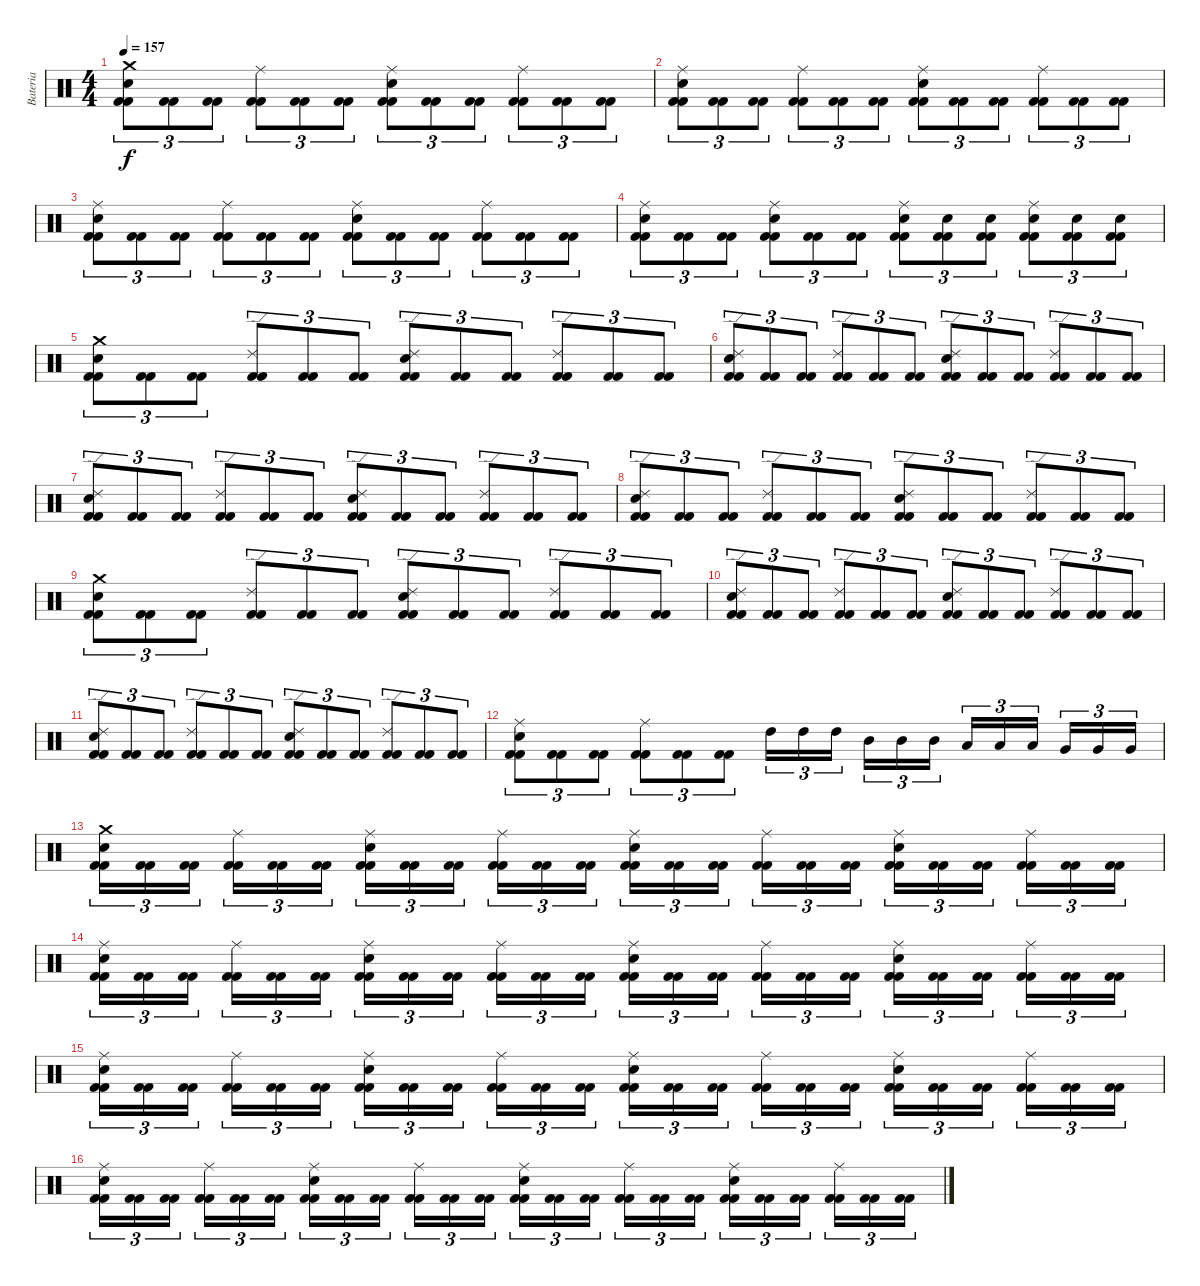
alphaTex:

\track ("Bateria" "Bateria") {instrument percussion}
\staff {score}
\articulation defaults
\ts (4 4)
\tempo 157
\clef neutral
\ks c
("Kick (hit) 2" "Kick (hit) 2" "Snare (hit) 2" "Crash medium (hit)").8{tu (3 2) dy f} ("Kick (hit) 2" "Kick (hit) 2").8{tu (3 2)} ("Kick (hit) 2" "Kick (hit) 2").8{tu (3 2)} ("Kick (hit) 2" "Kick (hit) 2" "Ride (middle)").8{tu (3 2)} ("Kick (hit) 2" "Kick (hit) 2").8{tu (3 2)} ("Kick (hit) 2" "Kick (hit) 2").8{tu (3 2)} ("Kick (hit) 2" "Kick (hit) 2" "Snare (hit) 2" "Ride (middle)").8{tu (3 2)} ("Kick (hit) 2" "Kick (hit) 2").8{tu (3 2)} ("Kick (hit) 2" "Kick (hit) 2").8{tu (3 2)} ("Kick (hit) 2" "Kick (hit) 2" "Ride (middle)").8{tu (3 2)} ("Kick (hit) 2" "Kick (hit) 2").8{tu (3 2)} ("Kick (hit) 2" "Kick (hit) 2").8{tu (3 2)} |
("Kick (hit) 2" "Kick (hit) 2" "Snare (hit) 2" "Ride (middle)").8{tu (3 2)} ("Kick (hit) 2" "Kick (hit) 2").8{tu (3 2)} ("Kick (hit) 2" "Kick (hit) 2").8{tu (3 2)} ("Kick (hit) 2" "Kick (hit) 2" "Ride (middle)").8{tu (3 2)} ("Kick (hit) 2" "Kick (hit) 2").8{tu (3 2)} ("Kick (hit) 2" "Kick (hit) 2").8{tu (3 2)} ("Kick (hit) 2" "Kick (hit) 2" "Snare (hit) 2" "Ride (middle)").8{tu (3 2)} ("Kick (hit) 2" "Kick (hit) 2").8{tu (3 2)} ("Kick (hit) 2" "Kick (hit) 2").8{tu (3 2)} ("Kick (hit) 2" "Kick (hit) 2" "Ride (middle)").8{tu (3 2)} ("Kick (hit) 2" "Kick (hit) 2").8{tu (3 2)} ("Kick (hit) 2" "Kick (hit) 2").8{tu (3 2)} |
("Kick (hit) 2" "Kick (hit) 2" "Snare (hit) 2" "Ride (middle)").8{tu (3 2)} ("Kick (hit) 2" "Kick (hit) 2").8{tu (3 2)} ("Kick (hit) 2" "Kick (hit) 2").8{tu (3 2)} ("Kick (hit) 2" "Kick (hit) 2" "Ride (middle)").8{tu (3 2)} ("Kick (hit) 2" "Kick (hit) 2").8{tu (3 2)} ("Kick (hit) 2" "Kick (hit) 2").8{tu (3 2)} ("Kick (hit) 2" "Kick (hit) 2" "Snare (hit) 2" "Ride (middle)").8{tu (3 2)} ("Kick (hit) 2" "Kick (hit) 2").8{tu (3 2)} ("Kick (hit) 2" "Kick (hit) 2").8{tu (3 2)} ("Kick (hit) 2" "Kick (hit) 2" "Ride (middle)").8{tu (3 2)} ("Kick (hit) 2" "Kick (hit) 2").8{tu (3 2)} ("Kick (hit) 2" "Kick (hit) 2").8{tu (3 2)} |
("Kick (hit) 2" "Kick (hit) 2" "Snare (hit) 2" "Ride (middle)").8{tu (3 2)} ("Kick (hit) 2" "Kick (hit) 2").8{tu (3 2)} ("Kick (hit) 2" "Kick (hit) 2").8{tu (3 2)} ("Kick (hit) 2" "Kick (hit) 2" "Snare (hit) 2" "Ride (middle)").8{tu (3 2)} ("Kick (hit) 2" "Kick (hit) 2").8{tu (3 2)} ("Kick (hit) 2" "Kick (hit) 2").8{tu (3 2)} ("Kick (hit) 2" "Kick (hit) 2" "Snare (hit) 2" "Ride (middle)").8{tu (3 2)} ("Kick (hit) 2" "Kick (hit) 2" "Snare (hit) 2").8{tu (3 2)} ("Kick (hit) 2" "Kick (hit) 2" "Snare (hit) 2").8{tu (3 2)} ("Kick (hit) 2" "Kick (hit) 2" "Snare (hit) 2" "Ride (middle)").8{tu (3 2)} ("Kick (hit) 2" "Kick (hit) 2" "Snare (hit) 2").8{tu (3 2)} ("Kick (hit) 2" "Kick (hit) 2" "Snare (hit) 2").8{tu (3 2)} |
("Kick (hit) 2" "Kick (hit) 2" "Snare (hit) 2" "Crash medium (hit)").8{tu (3 2)} ("Kick (hit) 2" "Kick (hit) 2").8{tu (3 2)} ("Kick (hit) 2" "Kick (hit) 2").8{tu (3 2)} ("Kick (hit) 2" "Kick (hit) 2" "Ride (edge) 2").8{tu (3 2)} ("Kick (hit) 2" "Kick (hit) 2").8{tu (3 2)} ("Kick (hit) 2" "Kick (hit) 2").8{tu (3 2)} ("Kick (hit) 2" "Kick (hit) 2" "Snare (hit) 2" "Ride (edge) 2").8{tu (3 2)} ("Kick (hit) 2" "Kick (hit) 2").8{tu (3 2)} ("Kick (hit) 2" "Kick (hit) 2").8{tu (3 2)} ("Kick (hit) 2" "Kick (hit) 2" "Ride (edge) 2").8{tu (3 2)} ("Kick (hit) 2" "Kick (hit) 2").8{tu (3 2)} ("Kick (hit) 2" "Kick (hit) 2").8{tu (3 2)} |
("Kick (hit) 2" "Kick (hit) 2" "Snare (hit) 2" "Ride (edge) 2").8{tu (3 2)} ("Kick (hit) 2" "Kick (hit) 2").8{tu (3 2)} ("Kick (hit) 2" "Kick (hit) 2").8{tu (3 2)} ("Kick (hit) 2" "Kick (hit) 2" "Ride (edge) 2").8{tu (3 2)} ("Kick (hit) 2" "Kick (hit) 2").8{tu (3 2)} ("Kick (hit) 2" "Kick (hit) 2").8{tu (3 2)} ("Kick (hit) 2" "Kick (hit) 2" "Snare (hit) 2" "Ride (edge) 2").8{tu (3 2)} ("Kick (hit) 2" "Kick (hit) 2").8{tu (3 2)} ("Kick (hit) 2" "Kick (hit) 2").8{tu (3 2)} ("Kick (hit) 2" "Kick (hit) 2" "Ride (edge) 2").8{tu (3 2)} ("Kick (hit) 2" "Kick (hit) 2").8{tu (3 2)} ("Kick (hit) 2" "Kick (hit) 2").8{tu (3 2)} |
("Kick (hit) 2" "Kick (hit) 2" "Snare (hit) 2" "Ride (edge) 2").8{tu (3 2)} ("Kick (hit) 2" "Kick (hit) 2").8{tu (3 2)} ("Kick (hit) 2" "Kick (hit) 2").8{tu (3 2)} ("Kick (hit) 2" "Kick (hit) 2" "Ride (edge) 2").8{tu (3 2)} ("Kick (hit) 2" "Kick (hit) 2").8{tu (3 2)} ("Kick (hit) 2" "Kick (hit) 2").8{tu (3 2)} ("Kick (hit) 2" "Kick (hit) 2" "Snare (hit) 2" "Ride (edge) 2").8{tu (3 2)} ("Kick (hit) 2" "Kick (hit) 2").8{tu (3 2)} ("Kick (hit) 2" "Kick (hit) 2").8{tu (3 2)} ("Kick (hit) 2" "Kick (hit) 2" "Ride (edge) 2").8{tu (3 2)} ("Kick (hit) 2" "Kick (hit) 2").8{tu (3 2)} ("Kick (hit) 2" "Kick (hit) 2").8{tu (3 2)} |
("Kick (hit) 2" "Kick (hit) 2" "Snare (hit) 2" "Ride (edge) 2").8{tu (3 2)} ("Kick (hit) 2" "Kick (hit) 2").8{tu (3 2)} ("Kick (hit) 2" "Kick (hit) 2").8{tu (3 2)} ("Kick (hit) 2" "Kick (hit) 2" "Ride (edge) 2").8{tu (3 2)} ("Kick (hit) 2" "Kick (hit) 2").8{tu (3 2)} ("Kick (hit) 2" "Kick (hit) 2").8{tu (3 2)} ("Kick (hit) 2" "Kick (hit) 2" "Snare (hit) 2" "Ride (edge) 2").8{tu (3 2)} ("Kick (hit) 2" "Kick (hit) 2").8{tu (3 2)} ("Kick (hit) 2" "Kick (hit) 2").8{tu (3 2)} ("Kick (hit) 2" "Kick (hit) 2" "Ride (edge) 2").8{tu (3 2)} ("Kick (hit) 2" "Kick (hit) 2").8{tu (3 2)} ("Kick (hit) 2" "Kick (hit) 2").8{tu (3 2)} |
("Kick (hit) 2" "Kick (hit) 2" "Snare (hit) 2" "Crash medium (hit)").8{tu (3 2)} ("Kick (hit) 2" "Kick (hit) 2").8{tu (3 2)} ("Kick (hit) 2" "Kick (hit) 2").8{tu (3 2)} ("Kick (hit) 2" "Kick (hit) 2" "Ride (edge) 2").8{tu (3 2)} ("Kick (hit) 2" "Kick (hit) 2").8{tu (3 2)} ("Kick (hit) 2" "Kick (hit) 2").8{tu (3 2)} ("Kick (hit) 2" "Kick (hit) 2" "Snare (hit) 2" "Ride (edge) 2").8{tu (3 2)} ("Kick (hit) 2" "Kick (hit) 2").8{tu (3 2)} ("Kick (hit) 2" "Kick (hit) 2").8{tu (3 2)} ("Kick (hit) 2" "Kick (hit) 2" "Ride (edge) 2").8{tu (3 2)} ("Kick (hit) 2" "Kick (hit) 2").8{tu (3 2)} ("Kick (hit) 2" "Kick (hit) 2").8{tu (3 2)} |
("Kick (hit) 2" "Kick (hit) 2" "Snare (hit) 2" "Ride (edge) 2").8{tu (3 2)} ("Kick (hit) 2" "Kick (hit) 2").8{tu (3 2)} ("Kick (hit) 2" "Kick (hit) 2").8{tu (3 2)} ("Kick (hit) 2" "Kick (hit) 2" "Ride (edge) 2").8{tu (3 2)} ("Kick (hit) 2" "Kick (hit) 2").8{tu (3 2)} ("Kick (hit) 2" "Kick (hit) 2").8{tu (3 2)} ("Kick (hit) 2" "Kick (hit) 2" "Snare (hit) 2" "Ride (edge) 2").8{tu (3 2)} ("Kick (hit) 2" "Kick (hit) 2").8{tu (3 2)} ("Kick (hit) 2" "Kick (hit) 2").8{tu (3 2)} ("Kick (hit) 2" "Kick (hit) 2" "Ride (edge) 2").8{tu (3 2)} ("Kick (hit) 2" "Kick (hit) 2").8{tu (3 2)} ("Kick (hit) 2" "Kick (hit) 2").8{tu (3 2)} |
("Kick (hit) 2" "Kick (hit) 2" "Snare (hit) 2" "Ride (edge) 2").8{tu (3 2)} ("Kick (hit) 2" "Kick (hit) 2").8{tu (3 2)} ("Kick (hit) 2" "Kick (hit) 2").8{tu (3 2)} ("Kick (hit) 2" "Kick (hit) 2" "Ride (edge) 2").8{tu (3 2)} ("Kick (hit) 2" "Kick (hit) 2").8{tu (3 2)} ("Kick (hit) 2" "Kick (hit) 2").8{tu (3 2)} ("Kick (hit) 2" "Kick (hit) 2" "Snare (hit) 2" "Ride (edge) 2").8{tu (3 2)} ("Kick (hit) 2" "Kick (hit) 2").8{tu (3 2)} ("Kick (hit) 2" "Kick (hit) 2").8{tu (3 2)} ("Kick (hit) 2" "Kick (hit) 2" "Ride (edge) 2").8{tu (3 2)} ("Kick (hit) 2" "Kick (hit) 2").8{tu (3 2)} ("Kick (hit) 2" "Kick (hit) 2").8{tu (3 2)} |
("Kick (hit) 2" "Kick (hit) 2" "Snare (hit) 2" "Ride (middle)").8{tu (3 2)} ("Kick (hit) 2" "Kick (hit) 2").8{tu (3 2)} ("Kick (hit) 2" "Kick (hit) 2").8{tu (3 2)} ("Kick (hit) 2" "Kick (hit) 2" "Ride (middle)").8{tu (3 2)} ("Kick (hit) 2" "Kick (hit) 2").8{tu (3 2)} ("Kick (hit) 2" "Kick (hit) 2").8{tu (3 2)} "High Tom (hit)".16{tu (3 2)} "High Tom (hit)".16{tu (3 2)} "High Tom (hit)".16{tu (3 2)} "Mid Tom (hit)".16{tu (3 2)} "Mid Tom (hit)".16{tu (3 2)} "Mid Tom (hit)".16{tu (3 2)} "Low Tom (hit)".16{tu (3 2)} "Low Tom (hit)".16{tu (3 2)} "Low Tom (hit)".16{tu (3 2)} "Very Low Tom (hit)".16{tu (3 2)} "Very Low Tom (hit)".16{tu (3 2)} "Very Low Tom (hit)".16{tu (3 2)} |
("Kick (hit) 2" "Kick (hit) 2" "Snare (hit) 2" "Crash medium (hit)").16{tu (3 2)} ("Kick (hit) 2" "Kick (hit) 2").16{tu (3 2)} ("Kick (hit) 2" "Kick (hit) 2").16{tu (3 2)} ("Kick (hit) 2" "Kick (hit) 2" "Ride (middle)").16{tu (3 2)} ("Kick (hit) 2" "Kick (hit) 2").16{tu (3 2)} ("Kick (hit) 2" "Kick (hit) 2").16{tu (3 2)} ("Kick (hit) 2" "Kick (hit) 2" "Snare (hit) 2" "Ride (middle)").16{tu (3 2)} ("Kick (hit) 2" "Kick (hit) 2").16{tu (3 2)} ("Kick (hit) 2" "Kick (hit) 2").16{tu (3 2)} ("Kick (hit) 2" "Kick (hit) 2" "Ride (middle)").16{tu (3 2)} ("Kick (hit) 2" "Kick (hit) 2").16{tu (3 2)} ("Kick (hit) 2" "Kick (hit) 2").16{tu (3 2)} ("Kick (hit) 2" "Kick (hit) 2" "Snare (hit) 2" "Ride (middle)").16{tu (3 2)} ("Kick (hit) 2" "Kick (hit) 2").16{tu (3 2)} ("Kick (hit) 2" "Kick (hit) 2").16{tu (3 2)} ("Kick (hit) 2" "Kick (hit) 2" "Ride (middle)").16{tu (3 2)} ("Kick (hit) 2" "Kick (hit) 2").16{tu (3 2)} ("Kick (hit) 2" "Kick (hit) 2").16{tu (3 2)} ("Kick (hit) 2" "Kick (hit) 2" "Snare (hit) 2" "Ride (middle)").16{tu (3 2)} ("Kick (hit) 2" "Kick (hit) 2").16{tu (3 2)} ("Kick (hit) 2" "Kick (hit) 2").16{tu (3 2)} ("Kick (hit) 2" "Kick (hit) 2" "Ride (middle)").16{tu (3 2)} ("Kick (hit) 2" "Kick (hit) 2").16{tu (3 2)} ("Kick (hit) 2" "Kick (hit) 2").16{tu (3 2)} |
("Kick (hit) 2" "Kick (hit) 2" "Snare (hit) 2" "Ride (middle)").16{tu (3 2)} ("Kick (hit) 2" "Kick (hit) 2").16{tu (3 2)} ("Kick (hit) 2" "Kick (hit) 2").16{tu (3 2)} ("Kick (hit) 2" "Kick (hit) 2" "Ride (middle)").16{tu (3 2)} ("Kick (hit) 2" "Kick (hit) 2").16{tu (3 2)} ("Kick (hit) 2" "Kick (hit) 2").16{tu (3 2)} ("Kick (hit) 2" "Kick (hit) 2" "Snare (hit) 2" "Ride (middle)").16{tu (3 2)} ("Kick (hit) 2" "Kick (hit) 2").16{tu (3 2)} ("Kick (hit) 2" "Kick (hit) 2").16{tu (3 2)} ("Kick (hit) 2" "Kick (hit) 2" "Ride (middle)").16{tu (3 2)} ("Kick (hit) 2" "Kick (hit) 2").16{tu (3 2)} ("Kick (hit) 2" "Kick (hit) 2").16{tu (3 2)} ("Kick (hit) 2" "Kick (hit) 2" "Snare (hit) 2" "Ride (middle)").16{tu (3 2)} ("Kick (hit) 2" "Kick (hit) 2").16{tu (3 2)} ("Kick (hit) 2" "Kick (hit) 2").16{tu (3 2)} ("Kick (hit) 2" "Kick (hit) 2" "Ride (middle)").16{tu (3 2)} ("Kick (hit) 2" "Kick (hit) 2").16{tu (3 2)} ("Kick (hit) 2" "Kick (hit) 2").16{tu (3 2)} ("Kick (hit) 2" "Kick (hit) 2" "Snare (hit) 2" "Ride (middle)").16{tu (3 2)} ("Kick (hit) 2" "Kick (hit) 2").16{tu (3 2)} ("Kick (hit) 2" "Kick (hit) 2").16{tu (3 2)} ("Kick (hit) 2" "Kick (hit) 2" "Ride (middle)").16{tu (3 2)} ("Kick (hit) 2" "Kick (hit) 2").16{tu (3 2)} ("Kick (hit) 2" "Kick (hit) 2").16{tu (3 2)} |
("Kick (hit) 2" "Kick (hit) 2" "Snare (hit) 2" "Ride (middle)").16{tu (3 2)} ("Kick (hit) 2" "Kick (hit) 2").16{tu (3 2)} ("Kick (hit) 2" "Kick (hit) 2").16{tu (3 2)} ("Kick (hit) 2" "Kick (hit) 2" "Ride (middle)").16{tu (3 2)} ("Kick (hit) 2" "Kick (hit) 2").16{tu (3 2)} ("Kick (hit) 2" "Kick (hit) 2").16{tu (3 2)} ("Kick (hit) 2" "Kick (hit) 2" "Snare (hit) 2" "Ride (middle)").16{tu (3 2)} ("Kick (hit) 2" "Kick (hit) 2").16{tu (3 2)} ("Kick (hit) 2" "Kick (hit) 2").16{tu (3 2)} ("Kick (hit) 2" "Kick (hit) 2" "Ride (middle)").16{tu (3 2)} ("Kick (hit) 2" "Kick (hit) 2").16{tu (3 2)} ("Kick (hit) 2" "Kick (hit) 2").16{tu (3 2)} ("Kick (hit) 2" "Kick (hit) 2" "Snare (hit) 2" "Ride (middle)").16{tu (3 2)} ("Kick (hit) 2" "Kick (hit) 2").16{tu (3 2)} ("Kick (hit) 2" "Kick (hit) 2").16{tu (3 2)} ("Kick (hit) 2" "Kick (hit) 2" "Ride (middle)").16{tu (3 2)} ("Kick (hit) 2" "Kick (hit) 2").16{tu (3 2)} ("Kick (hit) 2" "Kick (hit) 2").16{tu (3 2)} ("Kick (hit) 2" "Kick (hit) 2" "Snare (hit) 2" "Ride (middle)").16{tu (3 2)} ("Kick (hit) 2" "Kick (hit) 2").16{tu (3 2)} ("Kick (hit) 2" "Kick (hit) 2").16{tu (3 2)} ("Kick (hit) 2" "Kick (hit) 2" "Ride (middle)").16{tu (3 2)} ("Kick (hit) 2" "Kick (hit) 2").16{tu (3 2)} ("Kick (hit) 2" "Kick (hit) 2").16{tu (3 2)} |
("Kick (hit) 2" "Kick (hit) 2" "Snare (hit) 2" "Ride (middle)").16{tu (3 2)} ("Kick (hit) 2" "Kick (hit) 2").16{tu (3 2)} ("Kick (hit) 2" "Kick (hit) 2").16{tu (3 2)} ("Kick (hit) 2" "Kick (hit) 2" "Ride (middle)").16{tu (3 2)} ("Kick (hit) 2" "Kick (hit) 2").16{tu (3 2)} ("Kick (hit) 2" "Kick (hit) 2").16{tu (3 2)} ("Kick (hit) 2" "Kick (hit) 2" "Snare (hit) 2" "Ride (middle)").16{tu (3 2)} ("Kick (hit) 2" "Kick (hit) 2").16{tu (3 2)} ("Kick (hit) 2" "Kick (hit) 2").16{tu (3 2)} ("Kick (hit) 2" "Kick (hit) 2" "Ride (middle)").16{tu (3 2)} ("Kick (hit) 2" "Kick (hit) 2").16{tu (3 2)} ("Kick (hit) 2" "Kick (hit) 2").16{tu (3 2)} ("Kick (hit) 2" "Kick (hit) 2" "Snare (hit) 2" "Ride (middle)").16{tu (3 2)} ("Kick (hit) 2" "Kick (hit) 2").16{tu (3 2)} ("Kick (hit) 2" "Kick (hit) 2").16{tu (3 2)} ("Kick (hit) 2" "Kick (hit) 2" "Ride (middle)").16{tu (3 2)} ("Kick (hit) 2" "Kick (hit) 2").16{tu (3 2)} ("Kick (hit) 2" "Kick (hit) 2").16{tu (3 2)} ("Kick (hit) 2" "Kick (hit) 2" "Snare (hit) 2" "Ride (middle)").16{tu (3 2)} ("Kick (hit) 2" "Kick (hit) 2").16{tu (3 2)} ("Kick (hit) 2" "Kick (hit) 2").16{tu (3 2)} ("Kick (hit) 2" "Kick (hit) 2" "Ride (middle)").16{tu (3 2)} ("Kick (hit) 2" "Kick (hit) 2").16{tu (3 2)} ("Kick (hit) 2" "Kick (hit) 2").16{tu (3 2)}
